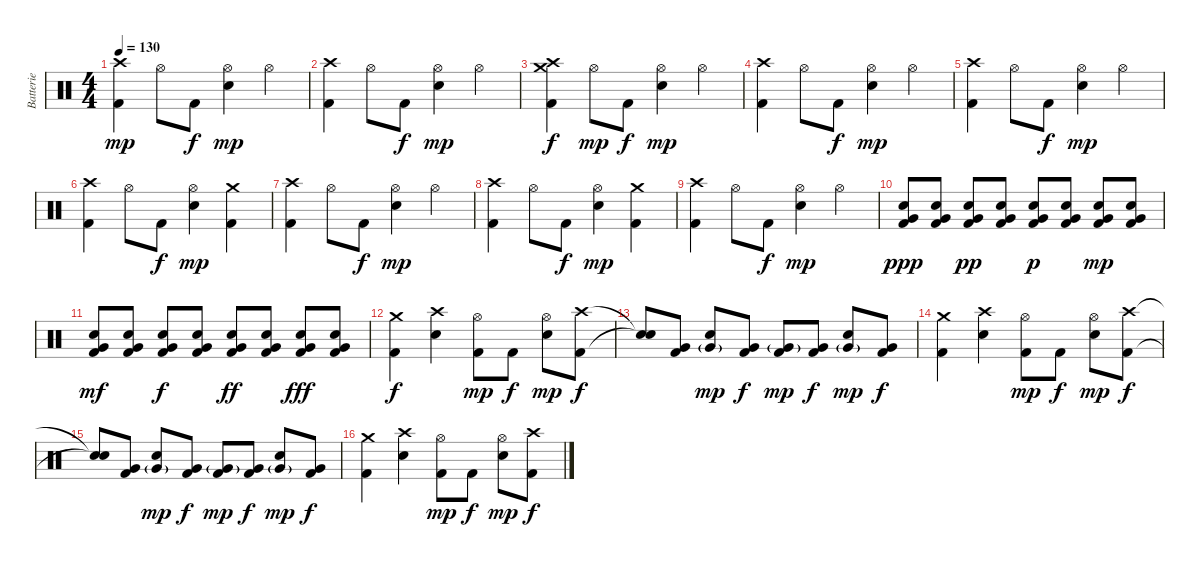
\track ("Batterie" "Batterie") {instrument percussion}
\staff {score}
\articulation defaults
\ts (4 4)
\tempo 130
\clef neutral
\ks c
("Crash high (hit)" "Kick (hit) 2").4{dy mp} "Hi-Hat (open)".8 "Kick (hit) 2".8{dy f} ("Hi-Hat (open)" "Electric Snare (hit)").4{dy mp} "Hi-Hat (open)".4 |
("Crash high (hit)" "Kick (hit) 2").4 "Hi-Hat (open)".8 "Kick (hit) 2".8{dy f} ("Hi-Hat (open)" "Electric Snare (hit)").4{dy mp} "Hi-Hat (open)".4 |
("Crash medium (hit)" "Crash high (hit)" "Kick (hit) 2").4{dy f} "Hi-Hat (open)".8{dy mp} "Kick (hit) 2".8{dy f} ("Hi-Hat (open)" "Electric Snare (hit)").4{dy mp} "Hi-Hat (open)".4 |
("Crash high (hit)" "Kick (hit) 2").4 "Hi-Hat (open)".8 "Kick (hit) 2".8{dy f} ("Hi-Hat (open)" "Electric Snare (hit)").4{dy mp} "Hi-Hat (open)".4 |
("Crash high (hit)" "Kick (hit) 2").4 "Hi-Hat (open)".8 "Kick (hit) 2".8{dy f} ("Hi-Hat (open)" "Electric Snare (hit)").4{dy mp} "Hi-Hat (open)".4 |
("Crash high (hit)" "Kick (hit) 2").4 "Hi-Hat (open)".8 "Kick (hit) 2".8{dy f} ("Hi-Hat (open)" "Electric Snare (hit)").4{dy mp} ("Crash medium (hit)" "Kick (hit) 2").4 |
("Crash high (hit)" "Kick (hit) 2").4 "Hi-Hat (open)".8 "Kick (hit) 2".8{dy f} ("Hi-Hat (open)" "Electric Snare (hit)").4{dy mp} "Hi-Hat (open)".4 |
("Crash high (hit)" "Kick (hit) 2").4 "Hi-Hat (open)".8 "Kick (hit) 2".8{dy f} ("Hi-Hat (open)" "Electric Snare (hit)").4{dy mp} ("Crash medium (hit)" "Kick (hit) 2").4 |
("Crash high (hit)" "Kick (hit) 2").4 "Hi-Hat (open)".8 "Kick (hit) 2".8{dy f} ("Hi-Hat (open)" "Electric Snare (hit)").4{dy mp} "Hi-Hat (open)".4 |
("Electric Snare (hit)" "Very Low Tom (hit)" "Kick (hit) 2").8{dy ppp} ("Electric Snare (hit)" "Very Low Tom (hit)" "Kick (hit) 2").8 ("Electric Snare (hit)" "Very Low Tom (hit)" "Kick (hit) 2").8{dy pp} ("Electric Snare (hit)" "Very Low Tom (hit)" "Kick (hit) 2").8 ("Electric Snare (hit)" "Very Low Tom (hit)" "Kick (hit) 2").8{dy p} ("Electric Snare (hit)" "Very Low Tom (hit)" "Kick (hit) 2").8 ("Electric Snare (hit)" "Very Low Tom (hit)" "Kick (hit) 2").8{dy mp} ("Electric Snare (hit)" "Very Low Tom (hit)" "Kick (hit) 2").8 |
("Electric Snare (hit)" "Very Low Tom (hit)" "Kick (hit) 2").8{dy mf} ("Electric Snare (hit)" "Very Low Tom (hit)" "Kick (hit) 2").8 ("Electric Snare (hit)" "Very Low Tom (hit)" "Kick (hit) 2").8{dy f} ("Electric Snare (hit)" "Very Low Tom (hit)" "Kick (hit) 2").8 ("Electric Snare (hit)" "Very Low Tom (hit)" "Kick (hit) 2").8{dy ff} ("Electric Snare (hit)" "Very Low Tom (hit)" "Kick (hit) 2").8 ("Electric Snare (hit)" "Very Low Tom (hit)" "Kick (hit) 2").8{dy fff} ("Electric Snare (hit)" "Very Low Tom (hit)" "Kick (hit) 2").8 |
("Crash medium (hit)" "Kick (hit) 2").4{dy f} ("Crash high (hit)" "Electric Snare (hit)").4 ("Hi-Hat (open)" "Kick (hit) 2").8{dy mp} "Kick (hit) 2".8{dy f} ("Hi-Hat (open)" "Electric Snare (hit)").8{dy mp} ("Crash high (hit)" "Kick (hit) 2").8{dy f} |
("Snare (hit)"{t} "Snare (hit)"{t}).8 ("Very Low Tom (hit)" "Kick (hit) 2").8 ("Electric Snare (hit)" "Very Low Tom (hit)"{g}).8{dy mp} ("Very Low Tom (hit)" "Kick (hit) 2").8{dy f} ("Very Low Tom (hit)"{g} "Kick (hit) 2").8{dy mp} ("Very Low Tom (hit)" "Kick (hit) 2").8{dy f} ("Electric Snare (hit)" "Very Low Tom (hit)"{g}).8{dy mp} ("Very Low Tom (hit)" "Kick (hit) 2").8{dy f} |
("Crash medium (hit)" "Kick (hit) 2").4 ("Crash high (hit)" "Electric Snare (hit)").4 ("Hi-Hat (open)" "Kick (hit) 2").8{dy mp} "Kick (hit) 2".8{dy f} ("Hi-Hat (open)" "Electric Snare (hit)").8{dy mp} ("Crash high (hit)" "Kick (hit) 2").8{dy f} |
("Snare (hit)"{t} "Snare (hit)"{t}).8 ("Very Low Tom (hit)" "Kick (hit) 2").8 ("Electric Snare (hit)" "Very Low Tom (hit)"{g}).8{dy mp} ("Very Low Tom (hit)" "Kick (hit) 2").8{dy f} ("Very Low Tom (hit)"{g} "Kick (hit) 2").8{dy mp} ("Very Low Tom (hit)" "Kick (hit) 2").8{dy f} ("Electric Snare (hit)" "Very Low Tom (hit)"{g}).8{dy mp} ("Very Low Tom (hit)" "Kick (hit) 2").8{dy f} |
("Crash medium (hit)" "Kick (hit) 2").4 ("Crash high (hit)" "Electric Snare (hit)").4 ("Hi-Hat (open)" "Kick (hit) 2").8{dy mp} "Kick (hit) 2".8{dy f} ("Hi-Hat (open)" "Electric Snare (hit)").8{dy mp} ("Crash high (hit)" "Kick (hit) 2").8{dy f}
